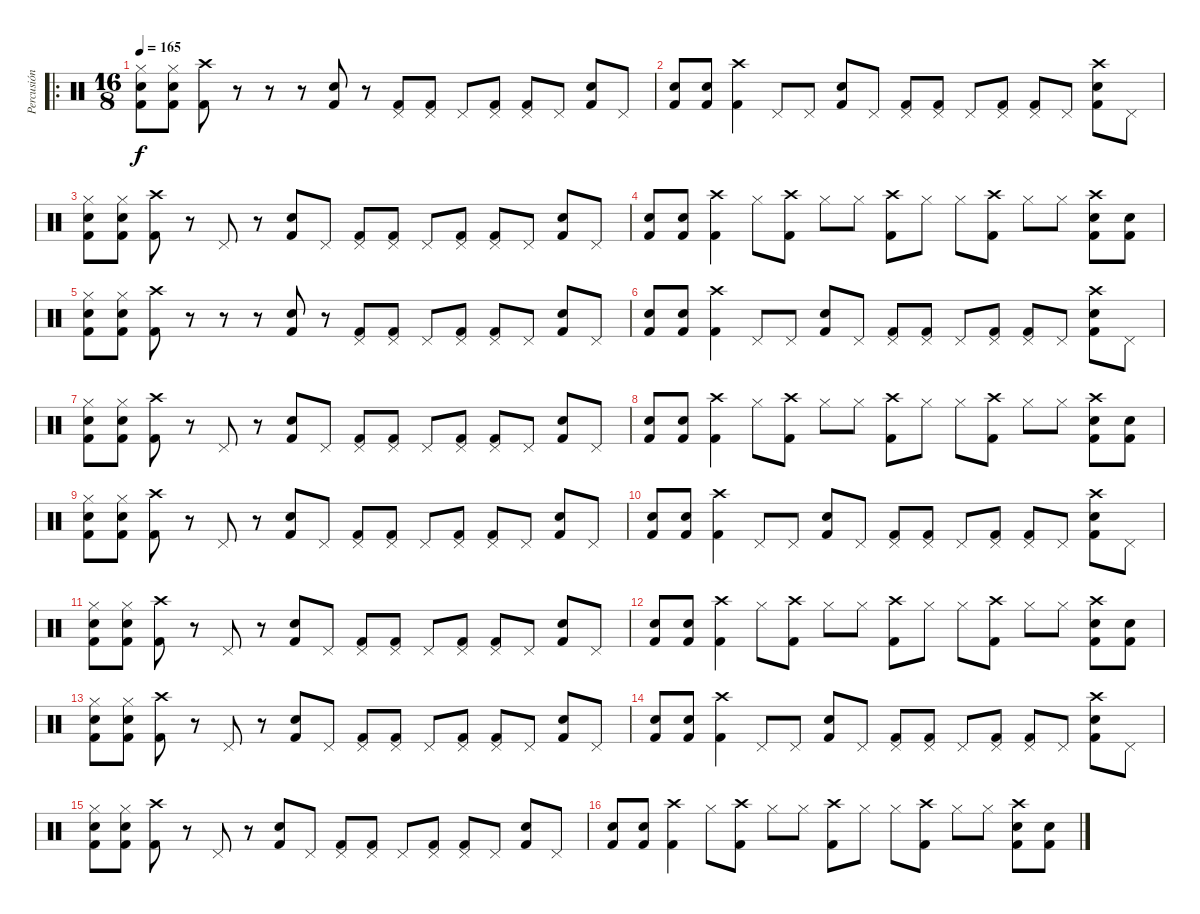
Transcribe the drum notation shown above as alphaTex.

\track ("Percusión" "Percusión") {instrument percussion}
\staff {score}
\articulation defaults
\ro
\ts (16 8)
\tempo 165
\clef neutral
\ks c
("Hi-Hat (closed)" "Electric Snare (hit)" "Kick (hit) 2").8{dy f} ("Hi-Hat (closed)" "Electric Snare (hit)" "Kick (hit) 2").8 ("Crash high (hit)" "Kick (hit) 2").8 r.8 r.8 r.8 ("Electric Snare (hit)" "Kick (hit) 2").8 r.8 ("Pedal Hi-Hat (hit)" "Kick (hit) 2").8 ("Pedal Hi-Hat (hit)" "Kick (hit) 2").8 "Pedal Hi-Hat (hit)".8 ("Pedal Hi-Hat (hit)" "Kick (hit) 2").8 ("Pedal Hi-Hat (hit)" "Kick (hit) 2").8 "Pedal Hi-Hat (hit)".8 ("Electric Snare (hit)" "Kick (hit) 2").8 "Pedal Hi-Hat (hit)".8 |
("Electric Snare (hit)" "Kick (hit) 2").8 ("Electric Snare (hit)" "Kick (hit) 2").8 ("Crash high (hit)" "Kick (hit) 2").4 "Pedal Hi-Hat (hit)".8 "Pedal Hi-Hat (hit)".8 ("Electric Snare (hit)" "Kick (hit) 2").8 "Pedal Hi-Hat (hit)".8 ("Pedal Hi-Hat (hit)" "Kick (hit) 2").8 ("Pedal Hi-Hat (hit)" "Kick (hit) 2").8 "Pedal Hi-Hat (hit)".8 ("Pedal Hi-Hat (hit)" "Kick (hit) 2").8 ("Pedal Hi-Hat (hit)" "Kick (hit) 2").8 "Pedal Hi-Hat (hit)".8 ("Crash high (hit)" "Electric Snare (hit)" "Kick (hit) 2").8 "Pedal Hi-Hat (hit)".8 |
("Hi-Hat (closed)" "Electric Snare (hit)" "Kick (hit) 2").8 ("Hi-Hat (closed)" "Electric Snare (hit)" "Kick (hit) 2").8 ("Crash high (hit)" "Kick (hit) 2").8 r.8 "Pedal Hi-Hat (hit)".8 r.8 ("Electric Snare (hit)" "Kick (hit) 2").8 "Pedal Hi-Hat (hit)".8 ("Pedal Hi-Hat (hit)" "Kick (hit) 2").8 ("Pedal Hi-Hat (hit)" "Kick (hit) 2").8 "Pedal Hi-Hat (hit)".8 ("Pedal Hi-Hat (hit)" "Kick (hit) 2").8 ("Pedal Hi-Hat (hit)" "Kick (hit) 2").8 "Pedal Hi-Hat (hit)".8 ("Electric Snare (hit)" "Kick (hit) 2").8 "Pedal Hi-Hat (hit)".8 |
("Electric Snare (hit)" "Kick (hit) 2").8 ("Electric Snare (hit)" "Kick (hit) 2").8 ("Crash high (hit)" "Kick (hit) 2").4 "Hi-Hat (closed)".8 ("Crash high (hit)" "Kick (hit) 2").8 "Hi-Hat (closed)".8 "Hi-Hat (closed)".8 ("Crash high (hit)" "Kick (hit) 2").8 "Hi-Hat (closed)".8 "Hi-Hat (closed)".8 ("Crash high (hit)" "Kick (hit) 2").8 "Hi-Hat (closed)".8 "Hi-Hat (closed)".8 ("Crash high (hit)" "Electric Snare (hit)" "Kick (hit) 2").8 ("Electric Snare (hit)" "Kick (hit) 2").8 |
("Hi-Hat (closed)" "Electric Snare (hit)" "Kick (hit) 2").8 ("Hi-Hat (closed)" "Electric Snare (hit)" "Kick (hit) 2").8 ("Crash high (hit)" "Kick (hit) 2").8 r.8 r.8 r.8 ("Electric Snare (hit)" "Kick (hit) 2").8 r.8 ("Pedal Hi-Hat (hit)" "Kick (hit) 2").8 ("Pedal Hi-Hat (hit)" "Kick (hit) 2").8 "Pedal Hi-Hat (hit)".8 ("Pedal Hi-Hat (hit)" "Kick (hit) 2").8 ("Pedal Hi-Hat (hit)" "Kick (hit) 2").8 "Pedal Hi-Hat (hit)".8 ("Electric Snare (hit)" "Kick (hit) 2").8 "Pedal Hi-Hat (hit)".8 |
("Electric Snare (hit)" "Kick (hit) 2").8 ("Electric Snare (hit)" "Kick (hit) 2").8 ("Crash high (hit)" "Kick (hit) 2").4 "Pedal Hi-Hat (hit)".8 "Pedal Hi-Hat (hit)".8 ("Electric Snare (hit)" "Kick (hit) 2").8 "Pedal Hi-Hat (hit)".8 ("Pedal Hi-Hat (hit)" "Kick (hit) 2").8 ("Pedal Hi-Hat (hit)" "Kick (hit) 2").8 "Pedal Hi-Hat (hit)".8 ("Pedal Hi-Hat (hit)" "Kick (hit) 2").8 ("Pedal Hi-Hat (hit)" "Kick (hit) 2").8 "Pedal Hi-Hat (hit)".8 ("Crash high (hit)" "Electric Snare (hit)" "Kick (hit) 2").8 "Pedal Hi-Hat (hit)".8 |
("Hi-Hat (closed)" "Electric Snare (hit)" "Kick (hit) 2").8 ("Hi-Hat (closed)" "Electric Snare (hit)" "Kick (hit) 2").8 ("Crash high (hit)" "Kick (hit) 2").8 r.8 "Pedal Hi-Hat (hit)".8 r.8 ("Electric Snare (hit)" "Kick (hit) 2").8 "Pedal Hi-Hat (hit)".8 ("Pedal Hi-Hat (hit)" "Kick (hit) 2").8 ("Pedal Hi-Hat (hit)" "Kick (hit) 2").8 "Pedal Hi-Hat (hit)".8 ("Pedal Hi-Hat (hit)" "Kick (hit) 2").8 ("Pedal Hi-Hat (hit)" "Kick (hit) 2").8 "Pedal Hi-Hat (hit)".8 ("Electric Snare (hit)" "Kick (hit) 2").8 "Pedal Hi-Hat (hit)".8 |
("Electric Snare (hit)" "Kick (hit) 2").8 ("Electric Snare (hit)" "Kick (hit) 2").8 ("Crash high (hit)" "Kick (hit) 2").4 "Hi-Hat (closed)".8 ("Crash high (hit)" "Kick (hit) 2").8 "Hi-Hat (closed)".8 "Hi-Hat (closed)".8 ("Crash high (hit)" "Kick (hit) 2").8 "Hi-Hat (closed)".8 "Hi-Hat (closed)".8 ("Crash high (hit)" "Kick (hit) 2").8 "Hi-Hat (closed)".8 "Hi-Hat (closed)".8 ("Crash high (hit)" "Electric Snare (hit)" "Kick (hit) 2").8 ("Electric Snare (hit)" "Kick (hit) 2").8 |
("Hi-Hat (closed)" "Electric Snare (hit)" "Kick (hit) 2").8 ("Hi-Hat (closed)" "Electric Snare (hit)" "Kick (hit) 2").8 ("Crash high (hit)" "Kick (hit) 2").8 r.8 "Pedal Hi-Hat (hit)".8 r.8 ("Electric Snare (hit)" "Kick (hit) 2").8 "Pedal Hi-Hat (hit)".8 ("Pedal Hi-Hat (hit)" "Kick (hit) 2").8 ("Pedal Hi-Hat (hit)" "Kick (hit) 2").8 "Pedal Hi-Hat (hit)".8 ("Pedal Hi-Hat (hit)" "Kick (hit) 2").8 ("Pedal Hi-Hat (hit)" "Kick (hit) 2").8 "Pedal Hi-Hat (hit)".8 ("Electric Snare (hit)" "Kick (hit) 2").8 "Pedal Hi-Hat (hit)".8 |
("Electric Snare (hit)" "Kick (hit) 2").8 ("Electric Snare (hit)" "Kick (hit) 2").8 ("Crash high (hit)" "Kick (hit) 2").4 "Pedal Hi-Hat (hit)".8 "Pedal Hi-Hat (hit)".8 ("Electric Snare (hit)" "Kick (hit) 2").8 "Pedal Hi-Hat (hit)".8 ("Pedal Hi-Hat (hit)" "Kick (hit) 2").8 ("Pedal Hi-Hat (hit)" "Kick (hit) 2").8 "Pedal Hi-Hat (hit)".8 ("Pedal Hi-Hat (hit)" "Kick (hit) 2").8 ("Pedal Hi-Hat (hit)" "Kick (hit) 2").8 "Pedal Hi-Hat (hit)".8 ("Crash high (hit)" "Electric Snare (hit)" "Kick (hit) 2").8 "Pedal Hi-Hat (hit)".8 |
("Hi-Hat (closed)" "Electric Snare (hit)" "Kick (hit) 2").8 ("Hi-Hat (closed)" "Electric Snare (hit)" "Kick (hit) 2").8 ("Crash high (hit)" "Kick (hit) 2").8 r.8 "Pedal Hi-Hat (hit)".8 r.8 ("Electric Snare (hit)" "Kick (hit) 2").8 "Pedal Hi-Hat (hit)".8 ("Pedal Hi-Hat (hit)" "Kick (hit) 2").8 ("Pedal Hi-Hat (hit)" "Kick (hit) 2").8 "Pedal Hi-Hat (hit)".8 ("Pedal Hi-Hat (hit)" "Kick (hit) 2").8 ("Pedal Hi-Hat (hit)" "Kick (hit) 2").8 "Pedal Hi-Hat (hit)".8 ("Electric Snare (hit)" "Kick (hit) 2").8 "Pedal Hi-Hat (hit)".8 |
("Electric Snare (hit)" "Kick (hit) 2").8 ("Electric Snare (hit)" "Kick (hit) 2").8 ("Crash high (hit)" "Kick (hit) 2").4 "Hi-Hat (closed)".8 ("Crash high (hit)" "Kick (hit) 2").8 "Hi-Hat (closed)".8 "Hi-Hat (closed)".8 ("Crash high (hit)" "Kick (hit) 2").8 "Hi-Hat (closed)".8 "Hi-Hat (closed)".8 ("Crash high (hit)" "Kick (hit) 2").8 "Hi-Hat (closed)".8 "Hi-Hat (closed)".8 ("Crash high (hit)" "Electric Snare (hit)" "Kick (hit) 2").8 ("Electric Snare (hit)" "Kick (hit) 2").8 |
("Hi-Hat (closed)" "Electric Snare (hit)" "Kick (hit) 2").8 ("Hi-Hat (closed)" "Electric Snare (hit)" "Kick (hit) 2").8 ("Crash high (hit)" "Kick (hit) 2").8 r.8 "Pedal Hi-Hat (hit)".8 r.8 ("Electric Snare (hit)" "Kick (hit) 2").8 "Pedal Hi-Hat (hit)".8 ("Pedal Hi-Hat (hit)" "Kick (hit) 2").8 ("Pedal Hi-Hat (hit)" "Kick (hit) 2").8 "Pedal Hi-Hat (hit)".8 ("Pedal Hi-Hat (hit)" "Kick (hit) 2").8 ("Pedal Hi-Hat (hit)" "Kick (hit) 2").8 "Pedal Hi-Hat (hit)".8 ("Electric Snare (hit)" "Kick (hit) 2").8 "Pedal Hi-Hat (hit)".8 |
("Electric Snare (hit)" "Kick (hit) 2").8 ("Electric Snare (hit)" "Kick (hit) 2").8 ("Crash high (hit)" "Kick (hit) 2").4 "Pedal Hi-Hat (hit)".8 "Pedal Hi-Hat (hit)".8 ("Electric Snare (hit)" "Kick (hit) 2").8 "Pedal Hi-Hat (hit)".8 ("Pedal Hi-Hat (hit)" "Kick (hit) 2").8 ("Pedal Hi-Hat (hit)" "Kick (hit) 2").8 "Pedal Hi-Hat (hit)".8 ("Pedal Hi-Hat (hit)" "Kick (hit) 2").8 ("Pedal Hi-Hat (hit)" "Kick (hit) 2").8 "Pedal Hi-Hat (hit)".8 ("Crash high (hit)" "Electric Snare (hit)" "Kick (hit) 2").8 "Pedal Hi-Hat (hit)".8 |
("Hi-Hat (closed)" "Electric Snare (hit)" "Kick (hit) 2").8 ("Hi-Hat (closed)" "Electric Snare (hit)" "Kick (hit) 2").8 ("Crash high (hit)" "Kick (hit) 2").8 r.8 "Pedal Hi-Hat (hit)".8 r.8 ("Electric Snare (hit)" "Kick (hit) 2").8 "Pedal Hi-Hat (hit)".8 ("Pedal Hi-Hat (hit)" "Kick (hit) 2").8 ("Pedal Hi-Hat (hit)" "Kick (hit) 2").8 "Pedal Hi-Hat (hit)".8 ("Pedal Hi-Hat (hit)" "Kick (hit) 2").8 ("Pedal Hi-Hat (hit)" "Kick (hit) 2").8 "Pedal Hi-Hat (hit)".8 ("Electric Snare (hit)" "Kick (hit) 2").8 "Pedal Hi-Hat (hit)".8 |
("Electric Snare (hit)" "Kick (hit) 2").8 ("Electric Snare (hit)" "Kick (hit) 2").8 ("Crash high (hit)" "Kick (hit) 2").4 "Hi-Hat (closed)".8 ("Crash high (hit)" "Kick (hit) 2").8 "Hi-Hat (closed)".8 "Hi-Hat (closed)".8 ("Crash high (hit)" "Kick (hit) 2").8 "Hi-Hat (closed)".8 "Hi-Hat (closed)".8 ("Crash high (hit)" "Kick (hit) 2").8 "Hi-Hat (closed)".8 "Hi-Hat (closed)".8 ("Crash high (hit)" "Electric Snare (hit)" "Kick (hit) 2").8 ("Electric Snare (hit)" "Kick (hit) 2").8
